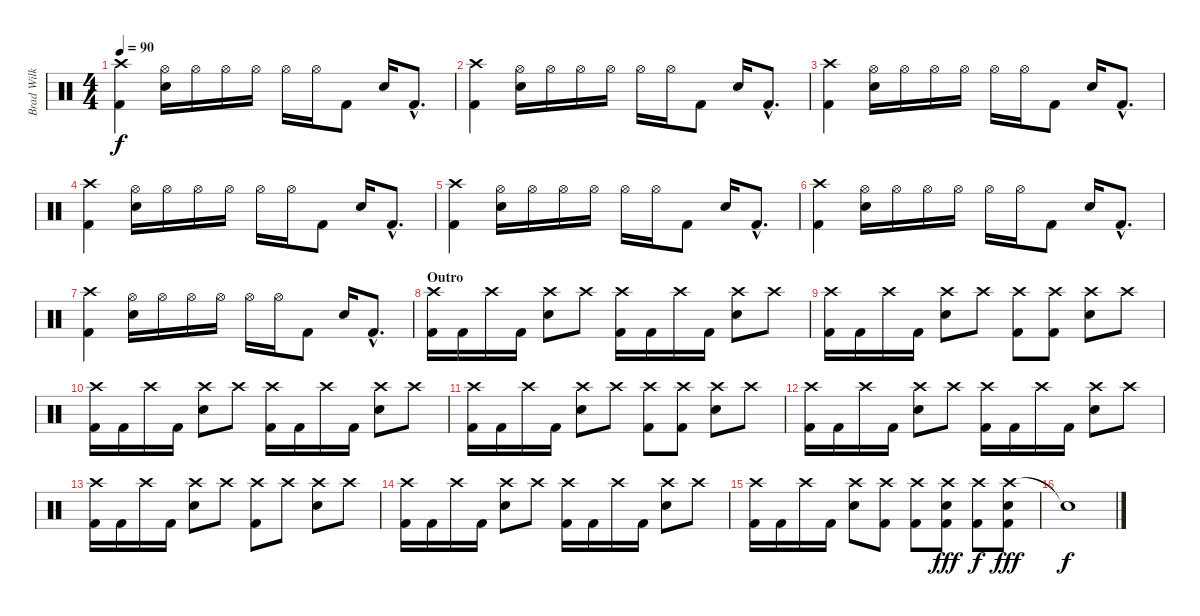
\track ("Brad Wilk / Drums" "Brad Wilk ") {instrument percussion}
\staff {score}
\articulation defaults
\ts (4 4)
\tempo 90
\clef neutral
\ks c
("Crash high (hit)" "Kick (hit) 2").4{dy f} ("Hi-Hat (open)" "Electric Snare (hit)").16 "Hi-Hat (open)".16 "Hi-Hat (open)".16 "Hi-Hat (open)".16 "Hi-Hat (open)".16 "Hi-Hat (open)".16 "Kick (hit) 2".8 "Electric Snare (hit)".16 "Kick (hit) 2"{hac}.8{d} |
("Crash high (hit)" "Kick (hit) 2").4 ("Hi-Hat (open)" "Electric Snare (hit)").16 "Hi-Hat (open)".16 "Hi-Hat (open)".16 "Hi-Hat (open)".16 "Hi-Hat (open)".16 "Hi-Hat (open)".16 "Kick (hit) 2".8 "Electric Snare (hit)".16 "Kick (hit) 2"{hac}.8{d} |
("Crash high (hit)" "Kick (hit) 2").4 ("Hi-Hat (open)" "Electric Snare (hit)").16 "Hi-Hat (open)".16 "Hi-Hat (open)".16 "Hi-Hat (open)".16 "Hi-Hat (open)".16 "Hi-Hat (open)".16 "Kick (hit) 2".8 "Electric Snare (hit)".16 "Kick (hit) 2"{hac}.8{d} |
("Crash high (hit)" "Kick (hit) 2").4 ("Hi-Hat (open)" "Electric Snare (hit)").16 "Hi-Hat (open)".16 "Hi-Hat (open)".16 "Hi-Hat (open)".16 "Hi-Hat (open)".16 "Hi-Hat (open)".16 "Kick (hit) 2".8 "Electric Snare (hit)".16 "Kick (hit) 2"{hac}.8{d} |
("Crash high (hit)" "Kick (hit) 2").4 ("Hi-Hat (open)" "Electric Snare (hit)").16 "Hi-Hat (open)".16 "Hi-Hat (open)".16 "Hi-Hat (open)".16 "Hi-Hat (open)".16 "Hi-Hat (open)".16 "Kick (hit) 2".8 "Electric Snare (hit)".16 "Kick (hit) 2"{hac}.8{d} |
("Crash high (hit)" "Kick (hit) 2").4 ("Hi-Hat (open)" "Electric Snare (hit)").16 "Hi-Hat (open)".16 "Hi-Hat (open)".16 "Hi-Hat (open)".16 "Hi-Hat (open)".16 "Hi-Hat (open)".16 "Kick (hit) 2".8 "Electric Snare (hit)".16 "Kick (hit) 2"{hac}.8{d} |
("Crash high (hit)" "Kick (hit) 2").4 ("Hi-Hat (open)" "Electric Snare (hit)").16 "Hi-Hat (open)".16 "Hi-Hat (open)".16 "Hi-Hat (open)".16 "Hi-Hat (open)".16 "Hi-Hat (open)".16 "Kick (hit) 2".8 "Electric Snare (hit)".16 "Kick (hit) 2"{hac}.8{d} |
\section ("" "Outro")
("Crash high (hit)" "Kick (hit) 2").16 "Kick (hit) 2".16 "Crash high (hit)".16 "Kick (hit) 2".16 ("Crash high (hit)" "Electric Snare (hit)").8 "Crash high (hit)".8 ("Crash high (hit)" "Kick (hit) 2").16 "Kick (hit) 2".16 "Crash high (hit)".16 "Kick (hit) 2".16 ("Crash high (hit)" "Electric Snare (hit)").8 "Crash high (hit)".8 |
("Crash high (hit)" "Kick (hit) 2").16 "Kick (hit) 2".16 "Crash high (hit)".16 "Kick (hit) 2".16 ("Crash high (hit)" "Electric Snare (hit)").8 "Crash high (hit)".8 ("Crash high (hit)" "Kick (hit) 2").8 ("Crash high (hit)" "Kick (hit) 2").8 ("Crash high (hit)" "Electric Snare (hit)").8 "Crash high (hit)".8 |
("Crash high (hit)" "Kick (hit) 2").16 "Kick (hit) 2".16 "Crash high (hit)".16 "Kick (hit) 2".16 ("Crash high (hit)" "Electric Snare (hit)").8 "Crash high (hit)".8 ("Crash high (hit)" "Kick (hit) 2").16 "Kick (hit) 2".16 "Crash high (hit)".16 "Kick (hit) 2".16 ("Crash high (hit)" "Electric Snare (hit)").8 "Crash high (hit)".8 |
("Crash high (hit)" "Kick (hit) 2").16 "Kick (hit) 2".16 "Crash high (hit)".16 "Kick (hit) 2".16 ("Crash high (hit)" "Electric Snare (hit)").8 "Crash high (hit)".8 ("Crash high (hit)" "Kick (hit) 2").8 ("Crash high (hit)" "Kick (hit) 2").8 ("Crash high (hit)" "Electric Snare (hit)").8 "Crash high (hit)".8 |
("Crash high (hit)" "Kick (hit) 2").16 "Kick (hit) 2".16 "Crash high (hit)".16 "Kick (hit) 2".16 ("Crash high (hit)" "Electric Snare (hit)").8 "Crash high (hit)".8 ("Crash high (hit)" "Kick (hit) 2").16 "Kick (hit) 2".16 "Crash high (hit)".16 "Kick (hit) 2".16 ("Crash high (hit)" "Electric Snare (hit)").8 "Crash high (hit)".8 |
("Crash high (hit)" "Kick (hit) 2").16 "Kick (hit) 2".16 "Crash high (hit)".16 "Kick (hit) 2".16 ("Crash high (hit)" "Electric Snare (hit)").8 "Crash high (hit)".8 ("Crash high (hit)" "Kick (hit) 2").8 "Crash high (hit)".8 ("Crash high (hit)" "Electric Snare (hit)").8 "Crash high (hit)".8 |
("Crash high (hit)" "Kick (hit) 2").16 "Kick (hit) 2".16 "Crash high (hit)".16 "Kick (hit) 2".16 ("Crash high (hit)" "Electric Snare (hit)").8 "Crash high (hit)".8 ("Crash high (hit)" "Kick (hit) 2").16 "Kick (hit) 2".16 "Crash high (hit)".16 "Kick (hit) 2".16 ("Crash high (hit)" "Electric Snare (hit)").8 "Crash high (hit)".8 |
("Crash high (hit)" "Kick (hit) 2").16 "Kick (hit) 2".16 "Crash high (hit)".16 "Kick (hit) 2".16 ("Crash high (hit)" "Electric Snare (hit)").8 ("Crash high (hit)" "Kick (hit) 2").8 ("Crash high (hit)" "Kick (hit) 2").8 ("Crash high (hit)" "Electric Snare (hit)" "Kick (hit) 2").8{dy fff} ("Crash high (hit)" "Kick (hit) 2").8{dy f} ("Crash high (hit)" "Electric Snare (hit)" "Kick (hit) 2").8{dy fff} |
"Snare (hit)"{t}.1{dy f}
